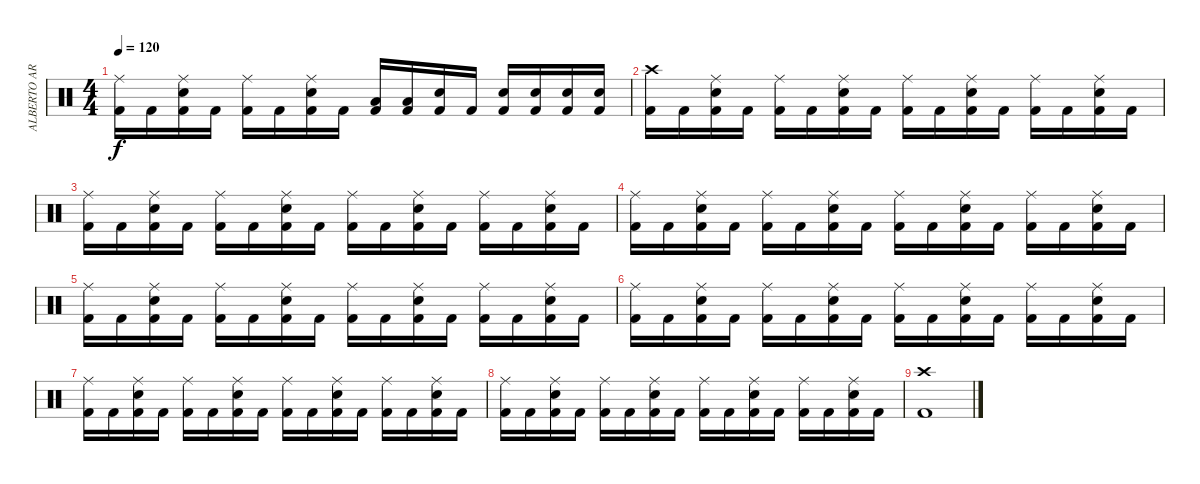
\track ("ALBERTO ARDINES" "ALBERTO AR") {instrument percussion}
\staff {score}
\articulation defaults
\ts (4 4)
\tempo 120
\clef neutral
\ks c
("Ride (middle)" "Kick (hit) 2").16{dy f} "Kick (hit) 2".16 ("Ride (middle)" "Electric Snare (hit)" "Kick (hit) 2").16 "Kick (hit) 2".16 ("Ride (middle)" "Kick (hit) 2").16 "Kick (hit) 2".16 ("Ride (middle)" "Electric Snare (hit)" "Kick (hit) 2").16 "Kick (hit) 2".16 ("Low Tom (hit)" "Kick (hit) 2").16 ("Low Tom (hit)" "Kick (hit) 2").16 ("Electric Snare (hit)" "Kick (hit) 2").16 "Kick (hit) 2".16 ("Electric Snare (hit)" "Kick (hit) 2").16 ("Electric Snare (hit)" "Kick (hit) 2").16 ("Electric Snare (hit)" "Kick (hit) 2").16 ("Electric Snare (hit)" "Kick (hit) 2").16 |
("Crash high (hit)" "Kick (hit) 2").16 "Kick (hit) 2".16 ("Ride (middle)" "Electric Snare (hit)" "Kick (hit) 2").16 "Kick (hit) 2".16 ("Ride (middle)" "Kick (hit) 2").16 "Kick (hit) 2".16 ("Ride (middle)" "Electric Snare (hit)" "Kick (hit) 2").16 "Kick (hit) 2".16 ("Ride (middle)" "Kick (hit) 2").16 "Kick (hit) 2".16 ("Ride (middle)" "Electric Snare (hit)" "Kick (hit) 2").16 "Kick (hit) 2".16 ("Ride (middle)" "Kick (hit) 2").16 "Kick (hit) 2".16 ("Ride (middle)" "Electric Snare (hit)" "Kick (hit) 2").16 "Kick (hit) 2".16 |
("Ride (middle)" "Kick (hit) 2").16 "Kick (hit) 2".16 ("Ride (middle)" "Electric Snare (hit)" "Kick (hit) 2").16 "Kick (hit) 2".16 ("Ride (middle)" "Kick (hit) 2").16 "Kick (hit) 2".16 ("Ride (middle)" "Electric Snare (hit)" "Kick (hit) 2").16 "Kick (hit) 2".16 ("Ride (middle)" "Kick (hit) 2").16 "Kick (hit) 2".16 ("Ride (middle)" "Electric Snare (hit)" "Kick (hit) 2").16 "Kick (hit) 2".16 ("Ride (middle)" "Kick (hit) 2").16 "Kick (hit) 2".16 ("Ride (middle)" "Electric Snare (hit)" "Kick (hit) 2").16 "Kick (hit) 2".16 |
("Ride (middle)" "Kick (hit) 2").16 "Kick (hit) 2".16 ("Ride (middle)" "Electric Snare (hit)" "Kick (hit) 2").16 "Kick (hit) 2".16 ("Ride (middle)" "Kick (hit) 2").16 "Kick (hit) 2".16 ("Ride (middle)" "Electric Snare (hit)" "Kick (hit) 2").16 "Kick (hit) 2".16 ("Ride (middle)" "Kick (hit) 2").16 "Kick (hit) 2".16 ("Ride (middle)" "Electric Snare (hit)" "Kick (hit) 2").16 "Kick (hit) 2".16 ("Ride (middle)" "Kick (hit) 2").16 "Kick (hit) 2".16 ("Ride (middle)" "Electric Snare (hit)" "Kick (hit) 2").16 "Kick (hit) 2".16 |
("Ride (middle)" "Kick (hit) 2").16 "Kick (hit) 2".16 ("Ride (middle)" "Electric Snare (hit)" "Kick (hit) 2").16 "Kick (hit) 2".16 ("Ride (middle)" "Kick (hit) 2").16 "Kick (hit) 2".16 ("Ride (middle)" "Electric Snare (hit)" "Kick (hit) 2").16 "Kick (hit) 2".16 ("Ride (middle)" "Kick (hit) 2").16 "Kick (hit) 2".16 ("Ride (middle)" "Electric Snare (hit)" "Kick (hit) 2").16 "Kick (hit) 2".16 ("Ride (middle)" "Kick (hit) 2").16 "Kick (hit) 2".16 ("Ride (middle)" "Electric Snare (hit)" "Kick (hit) 2").16 "Kick (hit) 2".16 |
("Ride (middle)" "Kick (hit) 2").16 "Kick (hit) 2".16 ("Ride (middle)" "Electric Snare (hit)" "Kick (hit) 2").16 "Kick (hit) 2".16 ("Ride (middle)" "Kick (hit) 2").16 "Kick (hit) 2".16 ("Ride (middle)" "Electric Snare (hit)" "Kick (hit) 2").16 "Kick (hit) 2".16 ("Ride (middle)" "Kick (hit) 2").16 "Kick (hit) 2".16 ("Ride (middle)" "Electric Snare (hit)" "Kick (hit) 2").16 "Kick (hit) 2".16 ("Ride (middle)" "Kick (hit) 2").16 "Kick (hit) 2".16 ("Ride (middle)" "Electric Snare (hit)" "Kick (hit) 2").16 "Kick (hit) 2".16 |
("Ride (middle)" "Kick (hit) 2").16 "Kick (hit) 2".16 ("Ride (middle)" "Electric Snare (hit)" "Kick (hit) 2").16 "Kick (hit) 2".16 ("Ride (middle)" "Kick (hit) 2").16 "Kick (hit) 2".16 ("Ride (middle)" "Electric Snare (hit)" "Kick (hit) 2").16 "Kick (hit) 2".16 ("Ride (middle)" "Kick (hit) 2").16 "Kick (hit) 2".16 ("Ride (middle)" "Electric Snare (hit)" "Kick (hit) 2").16 "Kick (hit) 2".16 ("Ride (middle)" "Kick (hit) 2").16 "Kick (hit) 2".16 ("Ride (middle)" "Electric Snare (hit)" "Kick (hit) 2").16 "Kick (hit) 2".16 |
("Ride (middle)" "Kick (hit) 2").16 "Kick (hit) 2".16 ("Ride (middle)" "Electric Snare (hit)" "Kick (hit) 2").16 "Kick (hit) 2".16 ("Ride (middle)" "Kick (hit) 2").16 "Kick (hit) 2".16 ("Ride (middle)" "Electric Snare (hit)" "Kick (hit) 2").16 "Kick (hit) 2".16 ("Ride (middle)" "Kick (hit) 2").16 "Kick (hit) 2".16 ("Ride (middle)" "Electric Snare (hit)" "Kick (hit) 2").16 "Kick (hit) 2".16 ("Ride (middle)" "Kick (hit) 2").16 "Kick (hit) 2".16 ("Ride (middle)" "Electric Snare (hit)" "Kick (hit) 2").16 "Kick (hit) 2".16 |
("Crash high (hit)" "Kick (hit) 2").1
